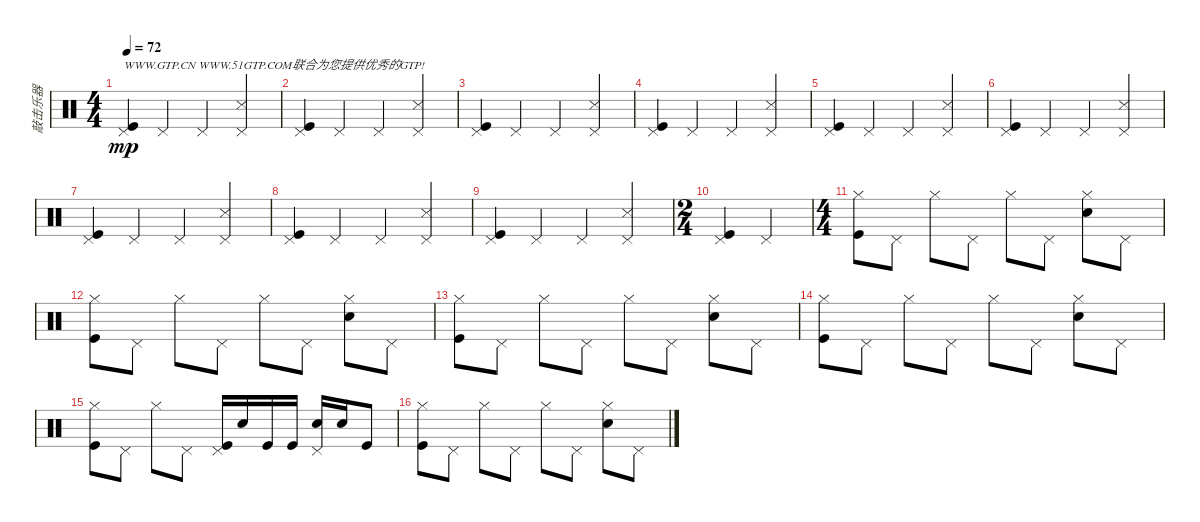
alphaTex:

\track ("敲击乐器" "敲击乐器") {instrument percussion}
\staff {score}
\articulation defaults
\ts (4 4)
\tempo 72
\clef neutral
\ks c
("Pedal Hi-Hat (hit)" "Kick (hit)").4{txt "WWW.GTP.CN WWW.51GTP.COM联合为您提供优秀的GTP!" dy mp} "Pedal Hi-Hat (hit)".4 "Pedal Hi-Hat (hit)".4 ("Pedal Hi-Hat (hit)" "Snare (side stick) 3").4 |
("Pedal Hi-Hat (hit)" "Kick (hit)").4 "Pedal Hi-Hat (hit)".4 "Pedal Hi-Hat (hit)".4 ("Pedal Hi-Hat (hit)" "Snare (side stick) 3").4 |
("Pedal Hi-Hat (hit)" "Kick (hit)").4 "Pedal Hi-Hat (hit)".4 "Pedal Hi-Hat (hit)".4 ("Pedal Hi-Hat (hit)" "Snare (side stick) 3").4 |
("Pedal Hi-Hat (hit)" "Kick (hit)").4 "Pedal Hi-Hat (hit)".4 "Pedal Hi-Hat (hit)".4 ("Pedal Hi-Hat (hit)" "Snare (side stick) 3").4 |
("Pedal Hi-Hat (hit)" "Kick (hit)").4 "Pedal Hi-Hat (hit)".4 "Pedal Hi-Hat (hit)".4 ("Pedal Hi-Hat (hit)" "Snare (side stick) 3").4 |
("Pedal Hi-Hat (hit)" "Kick (hit)").4 "Pedal Hi-Hat (hit)".4 "Pedal Hi-Hat (hit)".4 ("Pedal Hi-Hat (hit)" "Snare (side stick) 3").4 |
("Pedal Hi-Hat (hit)" "Kick (hit)").4 "Pedal Hi-Hat (hit)".4 "Pedal Hi-Hat (hit)".4 ("Pedal Hi-Hat (hit)" "Snare (side stick) 3").4 |
("Pedal Hi-Hat (hit)" "Kick (hit)").4 "Pedal Hi-Hat (hit)".4 "Pedal Hi-Hat (hit)".4 ("Pedal Hi-Hat (hit)" "Snare (side stick) 3").4 |
("Pedal Hi-Hat (hit)" "Kick (hit)").4 "Pedal Hi-Hat (hit)".4 "Pedal Hi-Hat (hit)".4 ("Pedal Hi-Hat (hit)" "Snare (side stick) 3").4 |
\ts (2 4)
("Pedal Hi-Hat (hit)" "Kick (hit)").4 "Pedal Hi-Hat (hit)".4 |
\ts (4 4)
("Hi-Hat (closed)" "Kick (hit)").8 "Pedal Hi-Hat (hit)".8 "Hi-Hat (closed)".8 "Pedal Hi-Hat (hit)".8 "Hi-Hat (closed)".8 "Pedal Hi-Hat (hit)".8 ("Hi-Hat (closed)" "Electric Snare (hit)").8 "Pedal Hi-Hat (hit)".8 |
("Hi-Hat (closed)" "Kick (hit)").8 "Pedal Hi-Hat (hit)".8 "Hi-Hat (closed)".8 "Pedal Hi-Hat (hit)".8 "Hi-Hat (closed)".8 "Pedal Hi-Hat (hit)".8 ("Hi-Hat (closed)" "Electric Snare (hit)").8 "Pedal Hi-Hat (hit)".8 |
("Hi-Hat (closed)" "Kick (hit)").8 "Pedal Hi-Hat (hit)".8 "Hi-Hat (closed)".8 "Pedal Hi-Hat (hit)".8 "Hi-Hat (closed)".8 "Pedal Hi-Hat (hit)".8 ("Hi-Hat (closed)" "Electric Snare (hit)").8 "Pedal Hi-Hat (hit)".8 |
("Hi-Hat (closed)" "Kick (hit)").8 "Pedal Hi-Hat (hit)".8 "Hi-Hat (closed)".8 "Pedal Hi-Hat (hit)".8 "Hi-Hat (closed)".8 "Pedal Hi-Hat (hit)".8 ("Hi-Hat (closed)" "Electric Snare (hit)").8 "Pedal Hi-Hat (hit)".8 |
("Hi-Hat (closed)" "Kick (hit)").8 "Pedal Hi-Hat (hit)".8 "Hi-Hat (closed)".8 "Pedal Hi-Hat (hit)".8 ("Pedal Hi-Hat (hit)" "Kick (hit)").16 "Electric Snare (hit)".16 "Kick (hit)".16 "Kick (hit)".16 ("Pedal Hi-Hat (hit)" "Electric Snare (hit)").16 "Electric Snare (hit)".16 "Kick (hit)".8 |
("Hi-Hat (closed)" "Kick (hit)").8 "Pedal Hi-Hat (hit)".8 "Hi-Hat (closed)".8 "Pedal Hi-Hat (hit)".8 "Hi-Hat (closed)".8 "Pedal Hi-Hat (hit)".8 ("Hi-Hat (closed)" "Electric Snare (hit)").8 "Pedal Hi-Hat (hit)".8
